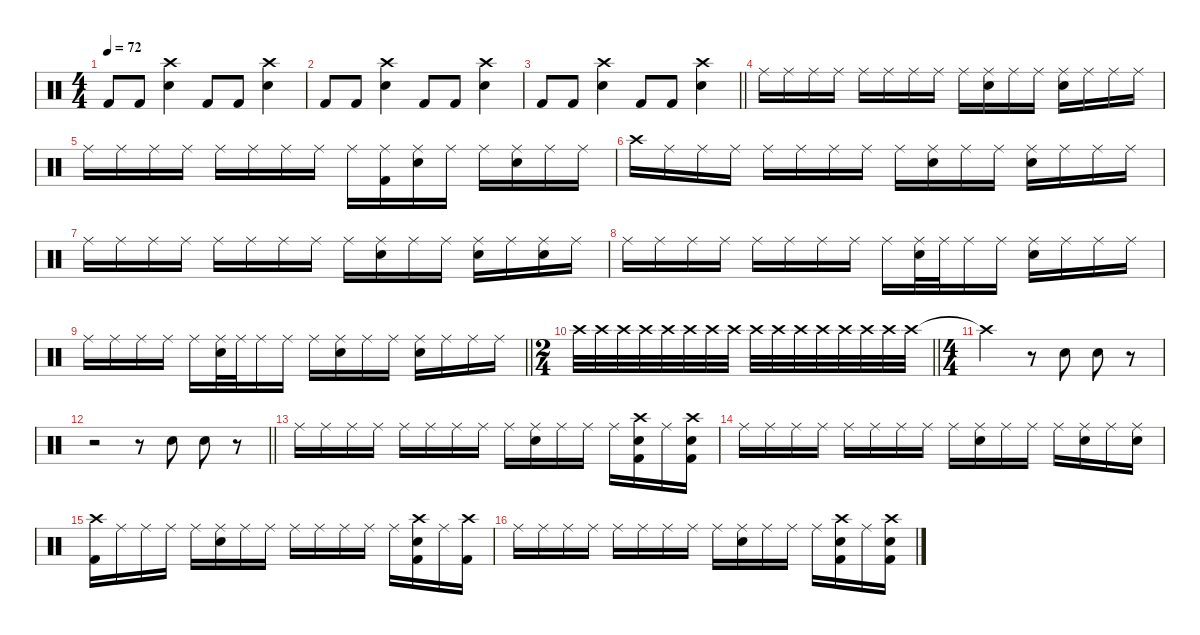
\defaultSystemsLayout 4
\hideDynamics
\bracketExtendMode nobrackets
\singleTrackTrackNamePolicy hidden
\multiTrackTrackNamePolicy hidden
\otherSystemsTrackNameOrientation horizontal
\track ("Drums" "drm.") {defaultSystemsLayout 4 instrument percussion}
\staff {score}
\articulation defaults
\ts (4 4)
\tempo 72
\clef neutral
\ks c "Kick (hit) 2".8{dy fff beam Up} "Kick (hit) 2".8{beam Up}
("Snare (hit) 2" "Crash high (hit)").4{beam Down} "Kick (hit) 2".8{dy f beam Up} "Kick (hit) 2".8{dy fff beam Up} ("Snare (hit) 2" "Crash high (hit)").4{beam Down} |
"Kick (hit) 2".8{beam Up} "Kick (hit) 2".8{beam Up} ("Snare (hit) 2" "Crash high (hit)").4{beam Down} "Kick (hit) 2".8{dy f beam Up} "Kick (hit) 2".8{dy fff beam Up} ("Snare (hit) 2" "Crash high (hit)").4{beam Down} |
\barLineRight lightlight "Kick (hit) 2".8{beam Up} "Kick (hit) 2".8{beam Up}
("Snare (hit) 2" "Crash high (hit)").4{beam Down} "Kick (hit) 2".8{dy f beam Up} "Kick (hit) 2".8{dy fff beam Up} ("Snare (hit) 2" "Crash high (hit)").4{beam Down} |
"Ride (middle)".16{dy f beam Down} "Ride (middle)".16{dy mp beam Down} "Ride (middle)".16{dy mf beam Down} "Ride (middle)".16{dy ff beam Down} "Ride (middle)".16{dy mp beam Down} "Ride (middle)".16{beam Down} "Ride (middle)".16{dy f beam Down} "Ride (middle)".16{dy mp beam Down} "Ride (middle)".16{dy f beam Down} ("Snare (hit) 2" "Ride (middle)").16{dy ff beam Down} "Ride (middle)".16{dy mp beam Down} "Ride (middle)".16{dy mf beam Down} ("Snare (hit) 2" "Ride (middle)").16{dy fff beam Down} "Ride (middle)".16{dy mf beam Down} "Ride (middle)".16{beam Down} "Ride (middle)".16{dy f beam Down} |
"Ride (middle)".16{beam Down} "Ride (middle)".16{dy mf beam Down} "Ride (middle)".16{beam Down} "Ride (middle)".16{dy f beam Down} "Ride (middle)".16{dy mf beam Down} "Ride (middle)".16{dy mp beam Down} "Ride (middle)".16{dy f beam Down} "Ride (middle)".16{beam Down} "Ride (middle)".16{beam Down} ("Kick (hit) 2" "Ride (middle)").16{beam Down} ("Snare (hit) 2" "Ride (middle)").16{beam Down} "Ride (middle)".16{dy mf beam Down} "Ride (middle)".16{dy f beam Down} ("Snare (hit) 2" "Ride (middle)").16{dy ff beam Down} "Ride (middle)".16{dy f beam Down} "Ride (middle)".16{beam Down} |
"Crash high (hit)".16{dy mf beam Down} "Ride (middle)".16{dy mp beam Down} "Ride (middle)".16{dy f beam Down} "Ride (middle)".16{beam Down} "Ride (middle)".16{beam Down} "Ride (middle)".16{dy mf beam Down} "Ride (middle)".16{beam Down} "Ride (middle)".16{dy f beam Down} "Ride (middle)".16{beam Down} ("Snare (hit) 2" "Ride (middle)").16{dy ff beam Down} "Ride (middle)".16{dy f beam Down} "Ride (middle)".16{dy mf beam Down} ("Snare (hit) 2" "Ride (middle)").16{dy ff beam Down} "Ride (middle)".16{dy mf beam Down} "Ride (middle)".16{dy f beam Down} "Ride (middle)".16{beam Down} |
"Ride (middle)".16{beam Down} "Ride (middle)".16{dy mf beam Down} "Ride (middle)".16{beam Down} "Ride (middle)".16{dy f beam Down} "Ride (middle)".16{beam Down} "Ride (middle)".16{dy mp beam Down} "Ride (middle)".16{dy mf beam Down} "Ride (middle)".16{dy f beam Down} "Ride (middle)".16{beam Down} ("Snare (hit) 2" "Ride (middle)").16{beam Down} "Ride (middle)".16{dy ff beam Down} "Ride (middle)".16{dy mf beam Down} ("Snare (hit) 2" "Ride (middle)").16{dy ff beam Down} "Ride (middle)".16{dy mf beam Down} ("Snare (hit) 2" "Ride (middle)").16{dy ff beam Down} "Ride (middle)".16{dy f beam Down} |
"Ride (middle)".16{dy ff beam Down} "Ride (middle)".16{dy f beam Down} "Ride (middle)".16{dy mf beam Down} "Ride (middle)".16{dy ff beam Down} "Ride (middle)".16{dy mp beam Down} "Ride (middle)".16{dy mf beam Down} "Ride (middle)".16{dy ff beam Down} "Ride (middle)".16{dy mf beam Down} "Ride (middle)".16{dy f beam Down} ("Snare (hit) 2" "Ride (middle)").32{beam Down} "Ride (middle)".32{beam Down} "Ride (middle)".16{beam Down} "Ride (middle)".16{dy mf beam Down} ("Snare (hit) 2" "Ride (middle)").16{dy ff beam Down} "Ride (middle)".16{dy f beam Down} "Ride (middle)".16{beam Down} "Ride (middle)".16{beam Down} |
\barLineRight lightlight "Ride (middle)".16{dy ff beam Down} "Ride (middle)".16{dy f beam Down} "Ride (middle)".16{beam Down} "Ride (middle)".16{dy ff beam Down} "Ride (middle)".16{dy f beam Down}
("Snare (hit) 2" "Ride (middle)").32{beam Down} "Ride (middle)".32{beam Down} "Ride (middle)".16{beam Down} "Ride (middle)".16{beam Down} "Ride (middle)".16{beam Down} ("Snare (hit) 2" "Ride (middle)").16{beam Down} "Ride (middle)".16{dy mp beam Down} "Ride (middle)".16{dy mf beam Down} ("Snare (hit) 2" "Ride (middle)").16{dy f beam Down} "Ride (middle)".16{dy mf beam Down} "Ride (middle)".16{dy f beam Down} "Ride (middle)".16{beam Down} |
\ts (2 4)
\beaming (8 2 2)
\barLineRight lightlight "Crash high (hit)".32{dy pp beam Down} "Crash high (hit)".32{beam Down} "Crash high (hit)".32{dy p beam Down} "Crash high (hit)".32{beam Down} "Crash high (hit)".32{beam Down} "Crash high (hit)".32{beam Down} "Crash high (hit)".32{beam Down} "Crash high (hit)".32{beam Down} "Crash high (hit)".32{dy mp beam Down} "Crash high (hit)".32{beam Down} "Crash high (hit)".32{beam Down} "Crash high (hit)".32{beam Down} "Crash high (hit)".32{beam Down} "Crash high (hit)".32{beam Down} "Crash high (hit)".32{dy mf beam Down} "Crash high (hit)".32{beam Down}
|
\ts (4 4)
\beaming (8 2 2 2 2)
"Crash high (hit)"{t}.2{beam Down} r.8{beam Down} "Hand Clap (hit)".8{dy fff beam Down} "Hand Clap (hit)".8{beam Down} r.8{beam Down} |
\barLineRight lightlight
r.2{beam Down} r.8{beam Down} "Hand Clap (hit)".8{beam Down} "Hand Clap (hit)".8{beam Down} r.8{beam Down} |
"Ride (middle)".16{dy f beam Down} "Ride (middle)".16{dy mf beam Down} "Ride (middle)".16{dy mp beam Down} "Ride (middle)".16{dy ff beam Down} "Ride (middle)".16{dy mp beam Down} "Ride (middle)".16{beam Down} "Ride (middle)".16{dy f beam Down} "Ride (middle)".16{dy mp beam Down} "Ride (middle)".16{beam Down} ("Snare (hit) 2" "Ride (middle)").16{dy f beam Down} "Ride (middle)".16{dy mp beam Down} "Ride (middle)".16{beam Down} "Ride (middle)".16{dy f beam Down} ("Kick (hit) 2" "Snare (hit) 2" "Crash high (hit)").16{dy fff beam Down} "Ride (middle)".16{dy mf beam Down} ("Kick (hit) 2" "Snare (hit) 2" "Crash high (hit)").16{dy ff beam Down} |
"Ride (middle)".16{dy f beam Down} "Ride (middle)".16{dy mp beam Down} "Ride (middle)".16{dy mf beam Down} "Ride (middle)".16{dy ff beam Down} "Ride (middle)".16{dy mp beam Down} "Ride (middle)".16{beam Down} "Ride (middle)".16{dy f beam Down} "Ride (middle)".16{dy mp beam Down} "Ride (middle)".16{beam Down} ("Snare (hit) 2" "Ride (middle)").16{dy mf beam Down} "Ride (middle)".16{dy mp beam Down} "Ride (middle)".16{dy mf beam Down} "Ride (middle)".16{dy f beam Down} ("Snare (hit) 2" "Ride (middle)").16{dy mf beam Down} "Ride (middle)".16{dy ff beam Down} ("Snare (hit) 2" "Ride (middle)").16{dy mf beam Down} |
("Kick (hit) 2" "Crash high (hit)").16{dy f beam Down} "Ride (middle)".16{dy mp beam Down} "Ride (middle)".16{beam Down} "Ride (middle)".16{dy f beam Down} "Ride (middle)".16{dy mp beam Down} ("Snare (hit) 2" "Ride (middle)").16{dy f beam Down} "Ride (middle)".16{dy ff beam Down} "Ride (middle)".16{dy mf beam Down} "Ride (middle)".16{beam Down} "Ride (middle)".16{dy f beam Down} "Ride (middle)".16{dy mp beam Down} "Ride (middle)".16{dy f beam Down} "Ride (middle)".16{beam Down} ("Kick (hit) 2" "Snare (hit) 2" "Crash high (hit)").16{dy ff beam Down} "Ride (middle)".16{dy f beam Down} ("Kick (hit) 2" "Crash high (hit)").16{dy ff beam Down} |
"Ride (middle)".16{dy f beam Down} "Ride (middle)".16{dy mf beam Down} "Ride (middle)".16{dy mp beam Down} "Ride (middle)".16{dy ff beam Down} "Ride (middle)".16{dy mp beam Down} "Ride (middle)".16{beam Down} "Ride (middle)".16{dy f beam Down} "Ride (middle)".16{dy mp beam Down} "Ride (middle)".16{beam Down} ("Snare (hit) 2" "Ride (middle)").16{dy f beam Down} "Ride (middle)".16{dy mp beam Down} "Ride (middle)".16{beam Down} "Ride (middle)".16{dy f beam Down} ("Kick (hit) 2" "Snare (hit) 2" "Crash high (hit)").16{dy fff beam Down} "Ride (middle)".16{dy mf beam Down} ("Kick (hit) 2" "Snare (hit) 2" "Crash high (hit)").16{dy ff beam Down}
